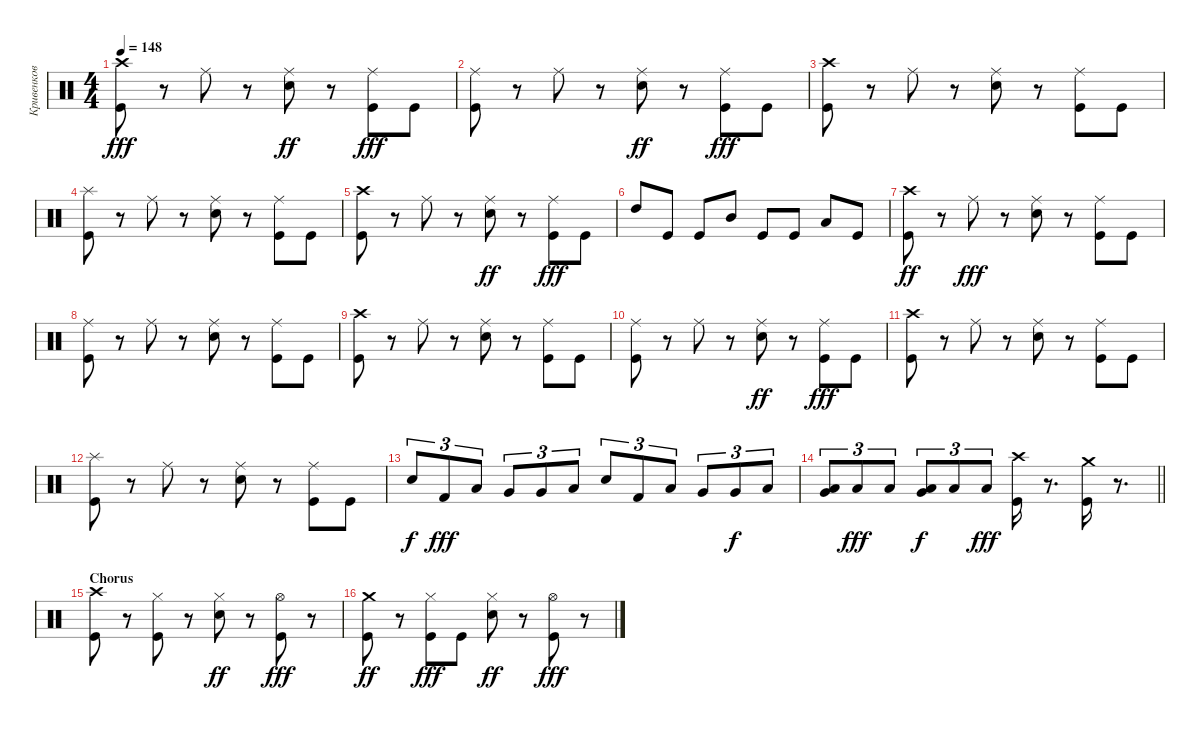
\track ("Кривенков" "Кривенков") {instrument percussion}
\staff {score}
\articulation defaults
\ts (4 4)
\tempo 148
\clef neutral
\ks c
("Crash high (hit)" "Kick (hit)").8{dy fff} r.8 "Ride (middle)".8 r.8 ("Ride (middle)" "Snare (hit) 2").8{dy ff} r.8 ("Kick (hit)" "Ride (middle)").8{dy fff} "Kick (hit)".8 |
("Ride (middle)" "Kick (hit)").8 r.8 "Ride (middle)".8 r.8 ("Ride (middle)" "Snare (hit) 2").8{dy ff} r.8 ("Kick (hit)" "Ride (middle)").8{dy fff} "Kick (hit)".8 |
("Crash high (hit)" "Kick (hit)").8 r.8 "Ride (middle)".8 r.8 ("Snare (hit) 2" "Ride (middle)").8 r.8 ("Kick (hit)" "Ride (middle)").8 "Kick (hit)".8 |
("Splash (hit)" "Kick (hit)").8 r.8 "Ride (middle)".8 r.8 ("Snare (hit) 2" "Ride (middle)").8 r.8 ("Kick (hit)" "Ride (middle)").8 "Kick (hit)".8 |
("Crash high (hit)" "Kick (hit)").8 r.8 "Ride (middle)".8 r.8 ("Ride (middle)" "Snare (hit) 2").8{dy ff} r.8 ("Kick (hit)" "Ride (middle)").8{dy fff} "Kick (hit)".8 |
"High Tom (hit)".8 "Kick (hit)".8 "Kick (hit)".8 "Mid Tom (hit)".8 "Kick (hit)".8 "Kick (hit)".8 "Low Tom (hit)".8 "Kick (hit)".8 |
("Kick (hit)" "Crash high (hit)").8{dy ff} r.8 "Ride (middle)".8{dy fff} r.8 ("Snare (hit) 2" "Ride (middle)").8 r.8 ("Ride (middle)" "Kick (hit)").8 "Kick (hit)".8 |
("Kick (hit)" "Ride (middle)").8 r.8 "Ride (middle)".8 r.8 ("Snare (hit) 2" "Ride (middle)").8 r.8 ("Ride (middle)" "Kick (hit)").8 "Kick (hit)".8 |
("Crash high (hit)" "Kick (hit)").8 r.8 "Ride (middle)".8 r.8 ("Snare (hit) 2" "Ride (middle)").8 r.8 ("Ride (middle)" "Kick (hit)").8 "Kick (hit)".8 |
("Ride (middle)" "Kick (hit)").8 r.8 "Ride (middle)".8 r.8 ("Ride (middle)" "Snare (hit) 2").8{dy ff} r.8 ("Ride (middle)" "Kick (hit)").8{dy fff} "Kick (hit)".8 |
("Crash high (hit)" "Kick (hit)").8 r.8 "Ride (middle)".8 r.8 ("Snare (hit) 2" "Ride (middle)").8 r.8 ("Kick (hit)" "Ride (middle)").8 "Kick (hit)".8 |
("Splash (hit)" "Kick (hit)").8 r.8 "Ride (middle)".8 r.8 ("Snare (hit) 2" "Ride (middle)").8 r.8 ("Ride (middle)" "Kick (hit)").8 "Kick (hit)".8 |
"Snare (hit) 2".8{tu (3 2) dy f} "Kick (hit) 2".8{tu (3 2) dy fff} "Low Tom (hit)".8{tu (3 2)} "Very Low Tom (hit)".8{tu (3 2)} "Very Low Tom (hit)".8{tu (3 2)} "Low Floor Tom (hit)".8{tu (3 2)} "Snare (hit) 2".8{tu (3 2)} "Kick (hit) 2".8{tu (3 2)} "Low Tom (hit)".8{tu (3 2)} "Very Low Tom (hit)".8{tu (3 2)} "Very Low Tom (hit)".8{tu (3 2) dy f} "Low Floor Tom (hit)".8{tu (3 2)} |
\barLineRight lightlight
("Low Floor Tom (hit)" "Very Low Tom (hit)").8{tu (3 2)} "Low Floor Tom (hit)".8{tu (3 2) dy fff} "Low Floor Tom (hit)".8{tu (3 2)} ("Low Floor Tom (hit)" "Very Low Tom (hit)").8{tu (3 2) dy f} "Low Floor Tom (hit)".8{tu (3 2)} "Low Floor Tom (hit)".8{tu (3 2) dy fff} ("Crash high (hit)" "Kick (hit)").16 r.8{d} ("Crash medium (hit)" "Kick (hit)").16 r.8{d} |
\section ("" "Chorus")
("Crash high (hit)" "Kick (hit)").8 r.8 ("Hi-Hat (closed)" "Kick (hit)").8 r.8 ("Hi-Hat (closed)" "Snare (hit) 2").8{dy ff} r.8 ("Hi-Hat (open)" "Kick (hit)").8{dy fff} r.8 |
("Kick (hit)" "Crash medium (hit)").8{dy ff} r.8 ("Hi-Hat (closed)" "Kick (hit)").8{dy fff} "Kick (hit)".8 ("Hi-Hat (closed)" "Snare (hit) 2").8{dy ff} r.8 ("Hi-Hat (open)" "Kick (hit)").8{dy fff} r.8
